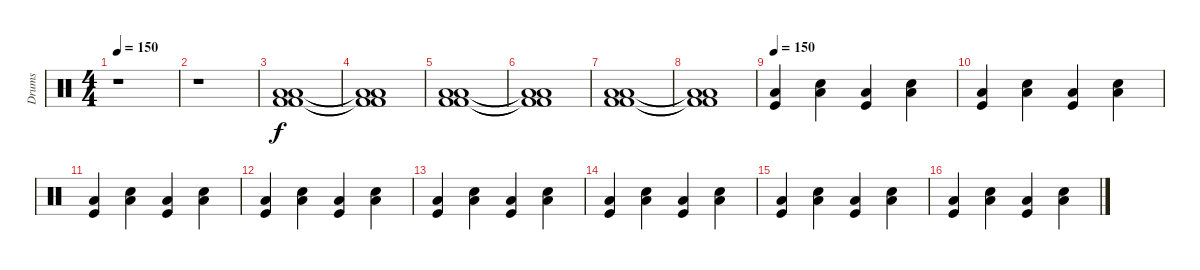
\track ("Drums" "Drums") {instrument percussion}
\staff {score}
\articulation defaults
\ts (4 4)
\tempo 150
\clef neutral
\ks c
r.1{dy f} |
r.1 |
("Low Floor Tom (hit)" "Low Floor Tom (hit)" "Kick (hit) 2" "Kick (hit) 2").1 |
("Low Floor Tom (hit)"{t} "Low Floor Tom (hit)"{t} "Kick (hit) 2"{t} "Kick (hit) 2"{t}).1 |
("Low Floor Tom (hit)" "Low Floor Tom (hit)" "Kick (hit) 2" "Kick (hit) 2").1 |
("Low Floor Tom (hit)"{t} "Low Floor Tom (hit)"{t} "Kick (hit) 2"{t} "Kick (hit) 2"{t}).1 |
("Low Floor Tom (hit)" "Low Floor Tom (hit)" "Kick (hit) 2" "Kick (hit) 2").1 |
("Low Floor Tom (hit)"{t} "Low Floor Tom (hit)"{t} "Kick (hit) 2"{t} "Kick (hit) 2"{t}).1 |
\tempo 150
("Low Floor Tom (hit)" "Kick (hit)").4 ("Low Floor Tom (hit)" "Snare (hit) 2").4 ("Low Floor Tom (hit)" "Kick (hit)").4 ("Low Floor Tom (hit)" "Snare (hit) 2").4 |
("Low Floor Tom (hit)" "Kick (hit)").4 ("Low Floor Tom (hit)" "Snare (hit) 2").4 ("Low Floor Tom (hit)" "Kick (hit)").4 ("Low Floor Tom (hit)" "Snare (hit) 2").4 |
("Low Floor Tom (hit)" "Kick (hit)").4 ("Low Floor Tom (hit)" "Snare (hit) 2").4 ("Low Floor Tom (hit)" "Kick (hit)").4 ("Low Floor Tom (hit)" "Snare (hit) 2").4 |
("Low Floor Tom (hit)" "Kick (hit)").4 ("Low Floor Tom (hit)" "Snare (hit) 2").4 ("Low Floor Tom (hit)" "Kick (hit)").4 ("Low Floor Tom (hit)" "Snare (hit) 2").4 |
("Low Floor Tom (hit)" "Kick (hit)").4 ("Low Floor Tom (hit)" "Snare (hit) 2").4 ("Low Floor Tom (hit)" "Kick (hit)").4 ("Low Floor Tom (hit)" "Snare (hit) 2").4 |
("Low Floor Tom (hit)" "Kick (hit)").4 ("Low Floor Tom (hit)" "Snare (hit) 2").4 ("Low Floor Tom (hit)" "Kick (hit)").4 ("Low Floor Tom (hit)" "Snare (hit) 2").4 |
("Low Floor Tom (hit)" "Kick (hit)").4 ("Low Floor Tom (hit)" "Snare (hit) 2").4 ("Low Floor Tom (hit)" "Kick (hit)").4 ("Low Floor Tom (hit)" "Snare (hit) 2").4 |
("Low Floor Tom (hit)" "Kick (hit)").4 ("Low Floor Tom (hit)" "Snare (hit) 2").4 ("Low Floor Tom (hit)" "Kick (hit)").4 ("Low Floor Tom (hit)" "Snare (hit) 2").4
